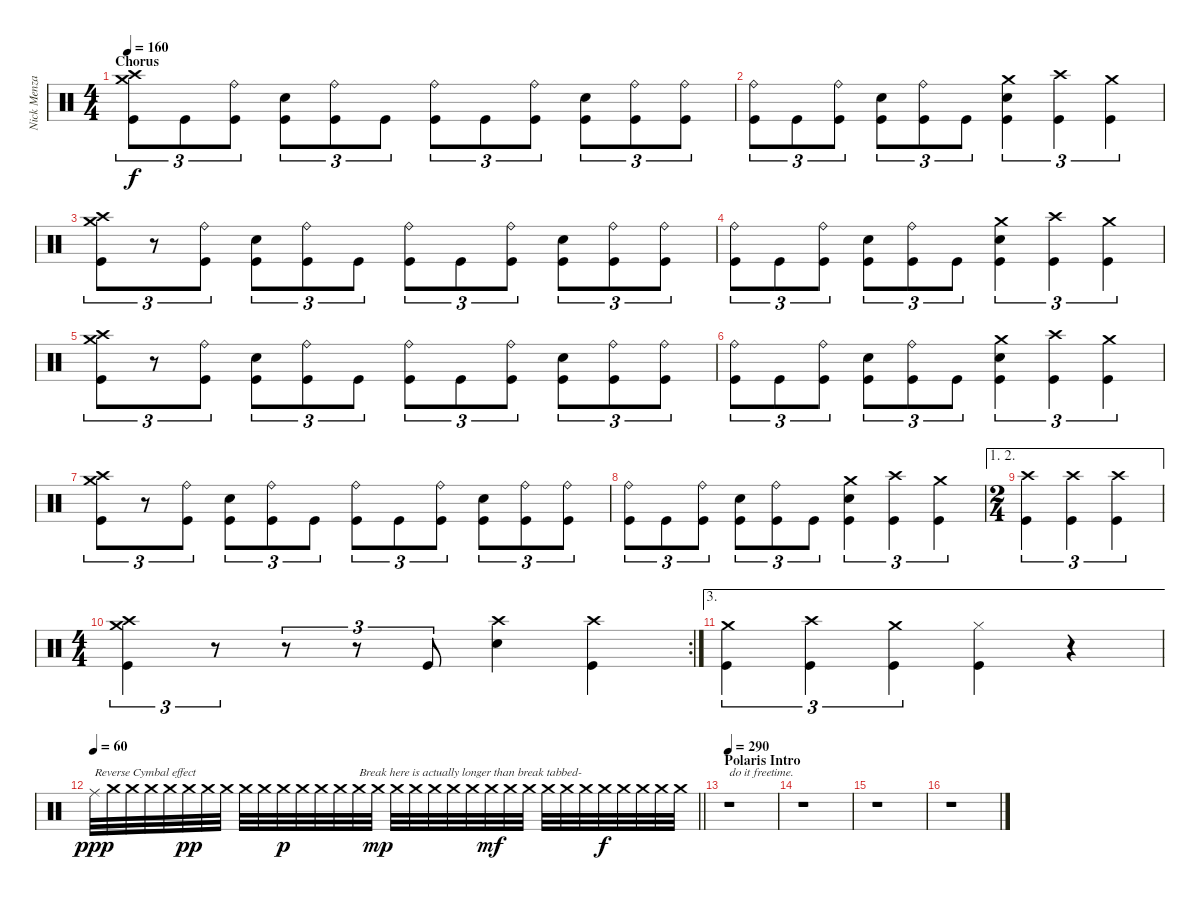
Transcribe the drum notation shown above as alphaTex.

\track ("Nick Menza" "Nick Menza") {instrument percussion}
\staff {score}
\articulation defaults
\ts (4 4)
\section ("" "Chorus")
\tempo 160
\clef neutral
\ks c
("Crash high (hit)" "Crash medium (hit)" "Kick (hit)").8{tu (3 2) dy f} "Kick (hit)".8{tu (3 2)} ("Ride (bell)" "Kick (hit)").8{tu (3 2)} ("Snare (hit) 2" "Kick (hit)").8{tu (3 2)} ("Ride (bell)" "Kick (hit)").8{tu (3 2)} "Kick (hit)".8{tu (3 2)} ("Ride (bell)" "Kick (hit)").8{tu (3 2)} "Kick (hit)".8{tu (3 2)} ("Ride (bell)" "Kick (hit)").8{tu (3 2)} ("Snare (hit) 2" "Kick (hit)").8{tu (3 2)} ("Ride (bell)" "Kick (hit)").8{tu (3 2)} ("Ride (bell)" "Kick (hit)").8{tu (3 2)} |
("Ride (bell)" "Kick (hit)").8{tu (3 2)} "Kick (hit)".8{tu (3 2)} ("Ride (bell)" "Kick (hit)").8{tu (3 2)} ("Snare (hit) 2" "Kick (hit)").8{tu (3 2)} ("Ride (bell)" "Kick (hit)").8{tu (3 2)} "Kick (hit)".8{tu (3 2)} ("Crash medium (hit)" "Snare (hit) 2" "Kick (hit)").4{tu (3 2)} ("Crash high (hit)" "Kick (hit)").4{tu (3 2)} ("Crash medium (hit)" "Kick (hit)").4{tu (3 2)} |
("Crash high (hit)" "Crash medium (hit)" "Kick (hit)").8{tu (3 2)} r.8{tu (3 2)} ("Ride (bell)" "Kick (hit)").8{tu (3 2)} ("Snare (hit) 2" "Kick (hit)").8{tu (3 2)} ("Ride (bell)" "Kick (hit)").8{tu (3 2)} "Kick (hit)".8{tu (3 2)} ("Ride (bell)" "Kick (hit)").8{tu (3 2)} "Kick (hit)".8{tu (3 2)} ("Ride (bell)" "Kick (hit)").8{tu (3 2)} ("Snare (hit) 2" "Kick (hit)").8{tu (3 2)} ("Ride (bell)" "Kick (hit)").8{tu (3 2)} ("Ride (bell)" "Kick (hit)").8{tu (3 2)} |
("Ride (bell)" "Kick (hit)").8{tu (3 2)} "Kick (hit)".8{tu (3 2)} ("Ride (bell)" "Kick (hit)").8{tu (3 2)} ("Snare (hit) 2" "Kick (hit)").8{tu (3 2)} ("Ride (bell)" "Kick (hit)").8{tu (3 2)} "Kick (hit)".8{tu (3 2)} ("Crash medium (hit)" "Snare (hit) 2" "Kick (hit)").4{tu (3 2)} ("Crash high (hit)" "Kick (hit)").4{tu (3 2)} ("Crash medium (hit)" "Kick (hit)").4{tu (3 2)} |
("Crash high (hit)" "Crash medium (hit)" "Kick (hit)").8{tu (3 2)} r.8{tu (3 2)} ("Ride (bell)" "Kick (hit)").8{tu (3 2)} ("Snare (hit) 2" "Kick (hit)").8{tu (3 2)} ("Ride (bell)" "Kick (hit)").8{tu (3 2)} "Kick (hit)".8{tu (3 2)} ("Ride (bell)" "Kick (hit)").8{tu (3 2)} "Kick (hit)".8{tu (3 2)} ("Ride (bell)" "Kick (hit)").8{tu (3 2)} ("Snare (hit) 2" "Kick (hit)").8{tu (3 2)} ("Ride (bell)" "Kick (hit)").8{tu (3 2)} ("Ride (bell)" "Kick (hit)").8{tu (3 2)} |
("Ride (bell)" "Kick (hit)").8{tu (3 2)} "Kick (hit)".8{tu (3 2)} ("Ride (bell)" "Kick (hit)").8{tu (3 2)} ("Snare (hit) 2" "Kick (hit)").8{tu (3 2)} ("Ride (bell)" "Kick (hit)").8{tu (3 2)} "Kick (hit)".8{tu (3 2)} ("Crash medium (hit)" "Snare (hit) 2" "Kick (hit)").4{tu (3 2)} ("Crash high (hit)" "Kick (hit)").4{tu (3 2)} ("Crash medium (hit)" "Kick (hit)").4{tu (3 2)} |
("Crash high (hit)" "Crash medium (hit)" "Kick (hit)").8{tu (3 2)} r.8{tu (3 2)} ("Ride (bell)" "Kick (hit)").8{tu (3 2)} ("Snare (hit) 2" "Kick (hit)").8{tu (3 2)} ("Ride (bell)" "Kick (hit)").8{tu (3 2)} "Kick (hit)".8{tu (3 2)} ("Ride (bell)" "Kick (hit)").8{tu (3 2)} "Kick (hit)".8{tu (3 2)} ("Ride (bell)" "Kick (hit)").8{tu (3 2)} ("Snare (hit) 2" "Kick (hit)").8{tu (3 2)} ("Ride (bell)" "Kick (hit)").8{tu (3 2)} ("Ride (bell)" "Kick (hit)").8{tu (3 2)} |
("Ride (bell)" "Kick (hit)").8{tu (3 2)} "Kick (hit)".8{tu (3 2)} ("Ride (bell)" "Kick (hit)").8{tu (3 2)} ("Snare (hit) 2" "Kick (hit)").8{tu (3 2)} ("Ride (bell)" "Kick (hit)").8{tu (3 2)} "Kick (hit)".8{tu (3 2)} ("Crash medium (hit)" "Snare (hit) 2" "Kick (hit)").4{tu (3 2)} ("Crash high (hit)" "Kick (hit)").4{tu (3 2)} ("Crash medium (hit)" "Kick (hit)").4{tu (3 2)} |
\ae (1 2)
\ts (2 4)
("Crash high (hit)" "Kick (hit)").4{tu (3 2)} ("Crash high (hit)" "Kick (hit)").4{tu (3 2)} ("Crash high (hit)" "Kick (hit)").4{tu (3 2)} |
\rc 2
\ts (4 4)
("Crash high (hit)" "Crash medium (hit)" "Kick (hit)").4{tu (3 2)} r.8{tu (3 2)} r.8{tu (3 2)} r.8{tu (3 2)} "Kick (hit)".8{tu (3 2)} ("Crash high (hit)" "Snare (hit) 2").4 ("Crash high (hit)" "Kick (hit)").4 |
\ae 3
("Crash medium (hit)" "Kick (hit)").4{tu (3 2)} ("Crash high (hit)" "Kick (hit)").4{tu (3 2)} ("Crash medium (hit)" "Kick (hit)").4{tu (3 2)} ("Hi-Hat (closed)" "Kick (hit)").4 r.4 |
\tempo 60
\barLineRight lightlight "Ride (middle)".32{txt "Reverse Cymbal effect" dy ppp} "Crash medium (hit)".32 "Crash medium (hit)".32 "Crash medium (hit)".32 "Crash medium (hit)".32 "Crash medium (hit)".32{dy pp} "Crash medium (hit)".32 "Crash medium (hit)".32 "Crash medium (hit)".32 "Crash medium (hit)".32 "Crash medium (hit)".32{dy p} "Crash medium (hit)".32 "Crash medium (hit)".32 "Crash medium (hit)".32 "Crash medium (hit)".32{txt "Break here is actually longer than break tabbed-"} "Crash medium (hit)".32{dy mp} "Crash medium (hit)".32 "Crash medium (hit)".32 "Crash medium (hit)".32 "Crash medium (hit)".32 "Crash medium (hit)".32 "Crash medium (hit)".32{dy mf} "Crash medium (hit)".32 "Crash medium (hit)".32 "Crash medium (hit)".32 "Crash medium (hit)".32 "Crash medium (hit)".32 "Crash medium (hit)".32{dy f} "Crash medium (hit)".32 "Crash medium (hit)".32 "Crash medium (hit)".32 "Crash medium (hit)".32
|
\section ("" "Polaris Intro")
\tempo 290
r.1{txt "do it freetime."} |
r.1 |
r.1 |
r.1
